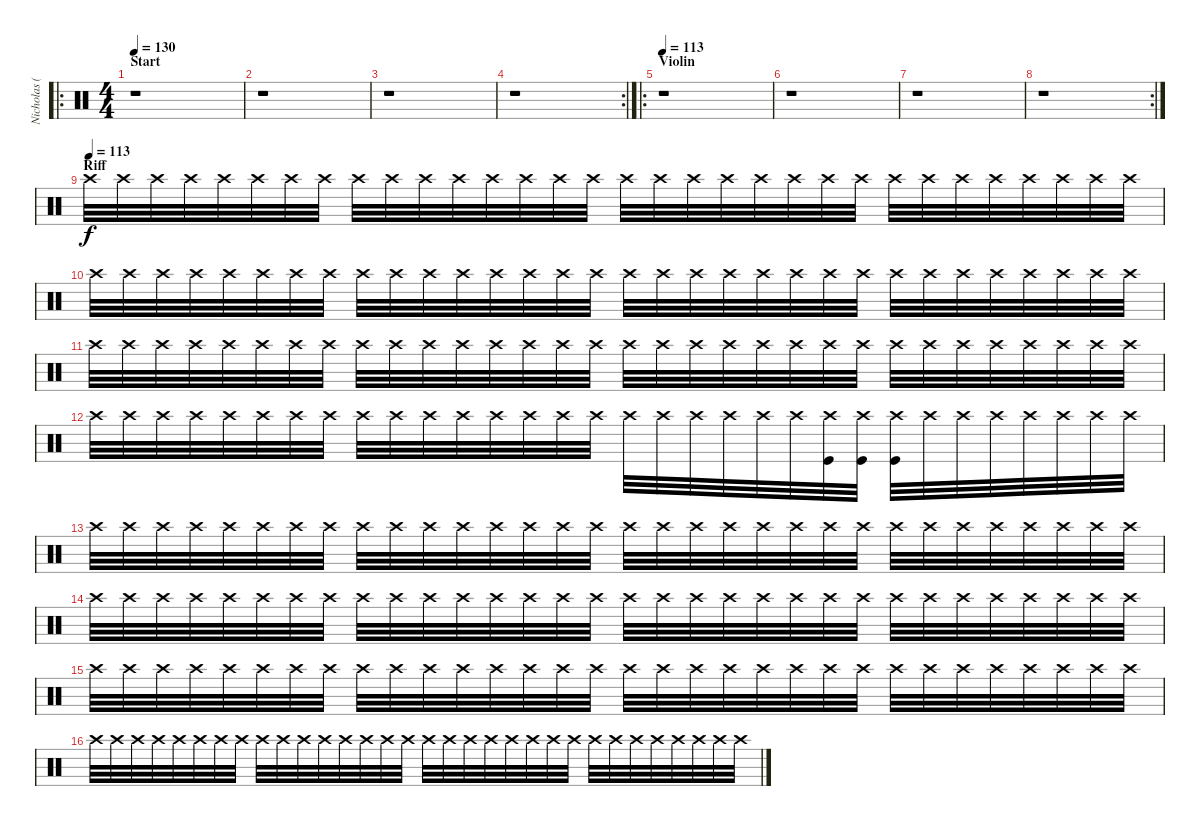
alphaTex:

\track ("Nicholas (Drums)" "Nicholas (") {instrument percussion}
\staff {score}
\articulation defaults
\ro
\ts (4 4)
\section ("" "Start")
\tempo 130
\tempo 113
\tempo 130
\clef neutral
\ks c
r.1{dy f} |
r.1 |
r.1 |
\rc 2
r.1 |
\ro
\section ("" "Violin")
\tempo 113
r.1 |
r.1 |
r.1 |
\rc 2
r.1 |
\section ("" "Riff")
\tempo (113)
"Crash high (hit)".32{volume 2} "Crash high (hit)".32 "Crash high (hit)".32 "Crash high (hit)".32 "Crash high (hit)".32 "Crash high (hit)".32 "Crash high (hit)".32 "Crash high (hit)".32 "Crash high (hit)".32 "Crash high (hit)".32 "Crash high (hit)".32 "Crash high (hit)".32 "Crash high (hit)".32 "Crash high (hit)".32 "Crash high (hit)".32 "Crash high (hit)".32 "Crash high (hit)".32 "Crash high (hit)".32 "Crash high (hit)".32 "Crash high (hit)".32 "Crash high (hit)".32 "Crash high (hit)".32 "Crash high (hit)".32 "Crash high (hit)".32 "Crash high (hit)".32 "Crash high (hit)".32 "Crash high (hit)".32 "Crash high (hit)".32 "Crash high (hit)".32 "Crash high (hit)".32 "Crash high (hit)".32 "Crash high (hit)".32 |
"Crash high (hit)".32 "Crash high (hit)".32 "Crash high (hit)".32 "Crash high (hit)".32 "Crash high (hit)".32 "Crash high (hit)".32 "Crash high (hit)".32 "Crash high (hit)".32 "Crash high (hit)".32 "Crash high (hit)".32 "Crash high (hit)".32 "Crash high (hit)".32 "Crash high (hit)".32 "Crash high (hit)".32 "Crash high (hit)".32 "Crash high (hit)".32 "Crash high (hit)".32{volume 14} "Crash high (hit)".32 "Crash high (hit)".32 "Crash high (hit)".32 "Crash high (hit)".32 "Crash high (hit)".32 "Crash high (hit)".32 "Crash high (hit)".32 "Crash high (hit)".32 "Crash high (hit)".32 "Crash high (hit)".32 "Crash high (hit)".32 "Crash high (hit)".32 "Crash high (hit)".32 "Crash high (hit)".32 "Crash high (hit)".32 |
"Crash high (hit)".32 "Crash high (hit)".32 "Crash high (hit)".32 "Crash high (hit)".32 "Crash high (hit)".32 "Crash high (hit)".32 "Crash high (hit)".32 "Crash high (hit)".32 "Crash high (hit)".32 "Crash high (hit)".32 "Crash high (hit)".32 "Crash high (hit)".32 "Crash high (hit)".32 "Crash high (hit)".32 "Crash high (hit)".32 "Crash high (hit)".32 "Crash high (hit)".32 "Crash high (hit)".32 "Crash high (hit)".32 "Crash high (hit)".32 "Crash high (hit)".32 "Crash high (hit)".32 "Crash high (hit)".32 "Crash high (hit)".32 "Crash high (hit)".32 "Crash high (hit)".32 "Crash high (hit)".32 "Crash high (hit)".32 "Crash high (hit)".32 "Crash high (hit)".32 "Crash high (hit)".32 "Crash high (hit)".32 |
"Crash high (hit)".32 "Crash high (hit)".32 "Crash high (hit)".32 "Crash high (hit)".32 "Crash high (hit)".32 "Crash high (hit)".32 "Crash high (hit)".32 "Crash high (hit)".32 "Crash high (hit)".32 "Crash high (hit)".32 "Crash high (hit)".32 "Crash high (hit)".32 "Crash high (hit)".32 "Crash high (hit)".32 "Crash high (hit)".32 "Crash high (hit)".32 "Crash high (hit)".32 "Crash high (hit)".32 "Crash high (hit)".32 "Crash high (hit)".32 "Crash high (hit)".32 "Crash high (hit)".32 ("Crash high (hit)" "Kick (hit)").32 ("Crash high (hit)" "Kick (hit)").32 ("Crash high (hit)" "Kick (hit)").32 "Crash high (hit)".32 "Crash high (hit)".32 "Crash high (hit)".32 "Crash high (hit)".32 "Crash high (hit)".32 "Crash high (hit)".32 "Crash high (hit)".32 |
"Crash high (hit)".32 "Crash high (hit)".32 "Crash high (hit)".32 "Crash high (hit)".32 "Crash high (hit)".32 "Crash high (hit)".32 "Crash high (hit)".32 "Crash high (hit)".32 "Crash high (hit)".32 "Crash high (hit)".32 "Crash high (hit)".32 "Crash high (hit)".32 "Crash high (hit)".32 "Crash high (hit)".32 "Crash high (hit)".32 "Crash high (hit)".32 "Crash high (hit)".32 "Crash high (hit)".32 "Crash high (hit)".32 "Crash high (hit)".32 "Crash high (hit)".32 "Crash high (hit)".32 "Crash high (hit)".32 "Crash high (hit)".32 "Crash high (hit)".32 "Crash high (hit)".32 "Crash high (hit)".32 "Crash high (hit)".32 "Crash high (hit)".32 "Crash high (hit)".32 "Crash high (hit)".32 "Crash high (hit)".32 |
"Crash high (hit)".32 "Crash high (hit)".32 "Crash high (hit)".32 "Crash high (hit)".32 "Crash high (hit)".32 "Crash high (hit)".32 "Crash high (hit)".32 "Crash high (hit)".32 "Crash high (hit)".32 "Crash high (hit)".32 "Crash high (hit)".32 "Crash high (hit)".32 "Crash high (hit)".32 "Crash high (hit)".32 "Crash high (hit)".32 "Crash high (hit)".32 "Crash high (hit)".32 "Crash high (hit)".32 "Crash high (hit)".32 "Crash high (hit)".32 "Crash high (hit)".32 "Crash high (hit)".32 "Crash high (hit)".32 "Crash high (hit)".32 "Crash high (hit)".32 "Crash high (hit)".32 "Crash high (hit)".32 "Crash high (hit)".32 "Crash high (hit)".32 "Crash high (hit)".32 "Crash high (hit)".32 "Crash high (hit)".32 |
"Crash high (hit)".32 "Crash high (hit)".32 "Crash high (hit)".32 "Crash high (hit)".32 "Crash high (hit)".32 "Crash high (hit)".32 "Crash high (hit)".32 "Crash high (hit)".32 "Crash high (hit)".32 "Crash high (hit)".32 "Crash high (hit)".32 "Crash high (hit)".32 "Crash high (hit)".32 "Crash high (hit)".32 "Crash high (hit)".32 "Crash high (hit)".32 "Crash high (hit)".32 "Crash high (hit)".32 "Crash high (hit)".32 "Crash high (hit)".32 "Crash high (hit)".32 "Crash high (hit)".32 "Crash high (hit)".32 "Crash high (hit)".32 "Crash high (hit)".32 "Crash high (hit)".32 "Crash high (hit)".32 "Crash high (hit)".32 "Crash high (hit)".32 "Crash high (hit)".32 "Crash high (hit)".32 "Crash high (hit)".32 |
"Crash high (hit)".32 "Crash high (hit)".32 "Crash high (hit)".32 "Crash high (hit)".32 "Crash high (hit)".32 "Crash high (hit)".32 "Crash high (hit)".32 "Crash high (hit)".32 "Crash high (hit)".32 "Crash high (hit)".32 "Crash high (hit)".32 "Crash high (hit)".32 "Crash high (hit)".32 "Crash high (hit)".32 "Crash high (hit)".32 "Crash high (hit)".32 "Crash high (hit)".32 "Crash high (hit)".32 "Crash high (hit)".32 "Crash high (hit)".32 "Crash high (hit)".32 "Crash high (hit)".32 "Crash high (hit)".32 "Crash high (hit)".32 "Crash high (hit)".32 "Crash high (hit)".32 "Crash high (hit)".32 "Crash high (hit)".32 "Crash high (hit)".32 "Crash high (hit)".32 "Crash high (hit)".32 "Crash high (hit)".32
